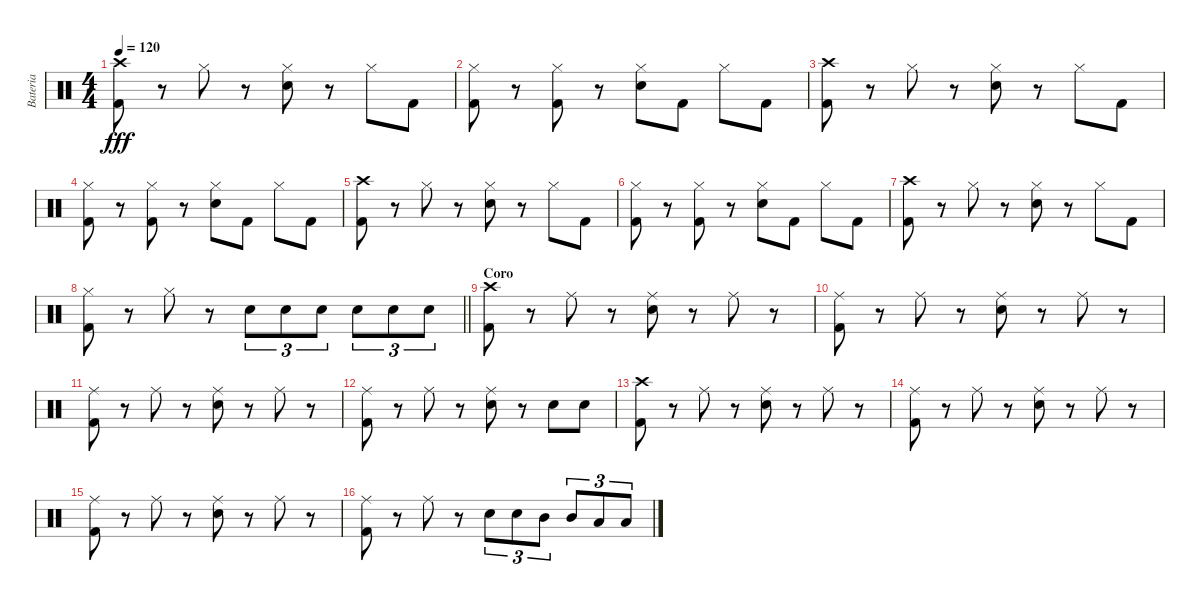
\track ("Bateria" "Bateria") {instrument percussion}
\staff {score}
\articulation defaults
\ts (4 4)
\tempo 120
\clef neutral
\ks c
("Crash high (hit)" "Kick (hit) 2").8{dy fff} r.8 "Hi-Hat (closed)".8 r.8 ("Hi-Hat (closed)" "Electric Snare (hit)").8 r.8 "Hi-Hat (closed)".8 "Kick (hit) 2".8 |
("Hi-Hat (closed)" "Kick (hit) 2").8 r.8 ("Hi-Hat (closed)" "Kick (hit) 2").8 r.8 ("Hi-Hat (closed)" "Electric Snare (hit)").8 "Kick (hit) 2".8 "Hi-Hat (closed)".8 "Kick (hit) 2".8 |
("Crash high (hit)" "Kick (hit) 2").8 r.8 "Hi-Hat (closed)".8 r.8 ("Hi-Hat (closed)" "Electric Snare (hit)").8 r.8 "Hi-Hat (closed)".8 "Kick (hit) 2".8 |
("Hi-Hat (closed)" "Kick (hit) 2").8 r.8 ("Hi-Hat (closed)" "Kick (hit) 2").8 r.8 ("Hi-Hat (closed)" "Electric Snare (hit)").8 "Kick (hit) 2".8 "Hi-Hat (closed)".8 "Kick (hit) 2".8 |
("Crash high (hit)" "Kick (hit) 2").8 r.8 "Hi-Hat (closed)".8 r.8 ("Hi-Hat (closed)" "Electric Snare (hit)").8 r.8 "Hi-Hat (closed)".8 "Kick (hit) 2".8 |
("Hi-Hat (closed)" "Kick (hit) 2").8 r.8 ("Hi-Hat (closed)" "Kick (hit) 2").8 r.8 ("Hi-Hat (closed)" "Electric Snare (hit)").8 "Kick (hit) 2".8 "Hi-Hat (closed)".8 "Kick (hit) 2".8 |
("Crash high (hit)" "Kick (hit) 2").8 r.8 "Hi-Hat (closed)".8 r.8 ("Hi-Hat (closed)" "Electric Snare (hit)").8 r.8 "Hi-Hat (closed)".8 "Kick (hit) 2".8 |
\barLineRight lightlight
("Hi-Hat (closed)" "Kick (hit) 2").8 r.8 "Hi-Hat (closed)".8 r.8 "Electric Snare (hit)".8{tu (3 2)} "Electric Snare (hit)".8{tu (3 2)} "Electric Snare (hit)".8{tu (3 2)} "Electric Snare (hit)".8{tu (3 2)} "Electric Snare (hit)".8{tu (3 2)} "Electric Snare (hit)".8{tu (3 2)} |
\section ("" "Coro")
("Crash high (hit)" "Kick (hit) 2").8 r.8 "Ride (middle)".8 r.8 ("Ride (middle)" "Electric Snare (hit)").8 r.8 "Ride (middle)".8 r.8 |
("Ride (middle)" "Kick (hit) 2").8 r.8 "Ride (middle)".8 r.8 ("Ride (middle)" "Electric Snare (hit)").8 r.8 "Ride (middle)".8 r.8 |
("Ride (middle)" "Kick (hit) 2").8 r.8 "Ride (middle)".8 r.8 ("Ride (middle)" "Electric Snare (hit)").8 r.8 "Ride (middle)".8 r.8 |
("Ride (middle)" "Kick (hit) 2").8 r.8 "Ride (middle)".8 r.8 ("Ride (middle)" "Electric Snare (hit)").8 r.8 "Electric Snare (hit)".8 "Electric Snare (hit)".8 |
("Crash high (hit)" "Kick (hit) 2").8 r.8 "Ride (middle)".8 r.8 ("Ride (middle)" "Electric Snare (hit)").8 r.8 "Ride (middle)".8 r.8 |
("Ride (middle)" "Kick (hit) 2").8 r.8 "Ride (middle)".8 r.8 ("Ride (middle)" "Electric Snare (hit)").8 r.8 "Ride (middle)".8 r.8 |
("Ride (middle)" "Kick (hit) 2").8 r.8 "Ride (middle)".8 r.8 ("Ride (middle)" "Electric Snare (hit)").8 r.8 "Ride (middle)".8 r.8 |
("Ride (middle)" "Kick (hit) 2").8 r.8 "Ride (middle)".8 r.8 "Electric Snare (hit)".8{tu (3 2)} "Electric Snare (hit)".8{tu (3 2)} "Mid Tom (hit)".8{tu (3 2)} "Mid Tom (hit)".8{tu (3 2)} "Low Tom (hit)".8{tu (3 2)} "Low Tom (hit)".8{tu (3 2)}
